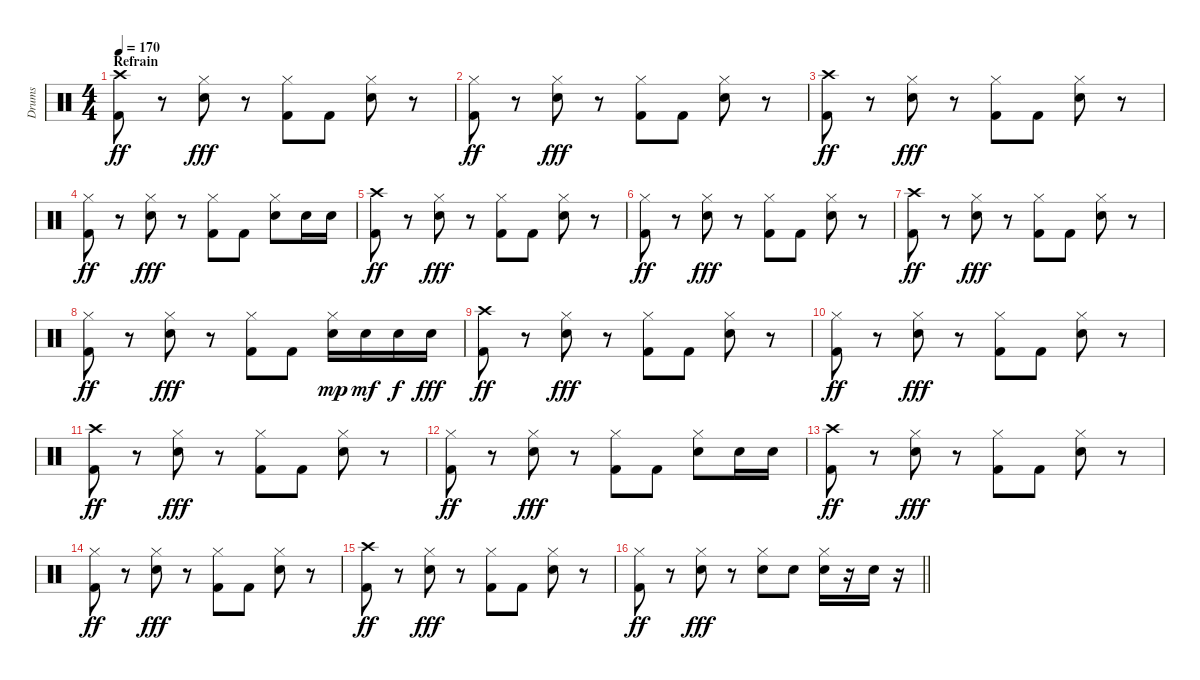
\track ("Drums" "Drums") {instrument percussion}
\staff {score}
\articulation defaults
\ts (4 4)
\section ("" "Refrain")
\tempo 170
\clef neutral
\ks c
("Crash high (hit)" "Kick (hit) 2").8{dy ff} r.8 ("Hi-Hat (closed)" "Snare (hit) 2").8{dy fff} r.8 ("Hi-Hat (closed)" "Kick (hit) 2").8 "Kick (hit) 2".8 ("Hi-Hat (closed)" "Snare (hit) 2").8 r.8 |
("Hi-Hat (closed)" "Kick (hit) 2").8{dy ff} r.8 ("Hi-Hat (closed)" "Snare (hit) 2").8{dy fff} r.8 ("Hi-Hat (closed)" "Kick (hit) 2").8 "Kick (hit) 2".8 ("Hi-Hat (closed)" "Snare (hit) 2").8 r.8 |
("Crash high (hit)" "Kick (hit) 2").8{dy ff} r.8 ("Hi-Hat (closed)" "Snare (hit) 2").8{dy fff} r.8 ("Hi-Hat (closed)" "Kick (hit) 2").8 "Kick (hit) 2".8 ("Hi-Hat (closed)" "Snare (hit) 2").8 r.8 |
("Hi-Hat (closed)" "Kick (hit) 2").8{dy ff} r.8 ("Hi-Hat (closed)" "Snare (hit) 2").8{dy fff} r.8 ("Hi-Hat (closed)" "Kick (hit) 2").8 "Kick (hit) 2".8 ("Hi-Hat (closed)" "Snare (hit) 2").8 "Snare (hit) 2".16 "Snare (hit) 2".16 |
("Crash high (hit)" "Kick (hit) 2").8{dy ff} r.8 ("Hi-Hat (closed)" "Snare (hit) 2").8{dy fff} r.8 ("Hi-Hat (closed)" "Kick (hit) 2").8 "Kick (hit) 2".8 ("Hi-Hat (closed)" "Snare (hit) 2").8 r.8 |
("Hi-Hat (closed)" "Kick (hit) 2").8{dy ff} r.8 ("Hi-Hat (closed)" "Snare (hit) 2").8{dy fff} r.8 ("Hi-Hat (closed)" "Kick (hit) 2").8 "Kick (hit) 2".8 ("Hi-Hat (closed)" "Snare (hit) 2").8 r.8 |
("Crash high (hit)" "Kick (hit) 2").8{dy ff} r.8 ("Hi-Hat (closed)" "Snare (hit) 2").8{dy fff} r.8 ("Hi-Hat (closed)" "Kick (hit) 2").8 "Kick (hit) 2".8 ("Hi-Hat (closed)" "Snare (hit) 2").8 r.8 |
("Hi-Hat (closed)" "Kick (hit) 2").8{dy ff} r.8 ("Hi-Hat (closed)" "Snare (hit) 2").8{dy fff} r.8 ("Hi-Hat (closed)" "Kick (hit) 2").8 "Kick (hit) 2".8 ("Hi-Hat (closed)" "Snare (hit) 2").16{dy mp} "Snare (hit) 2".16{dy mf} "Snare (hit) 2".16{dy f} "Snare (hit) 2".16{dy fff} |
("Crash high (hit)" "Kick (hit) 2").8{dy ff} r.8 ("Hi-Hat (closed)" "Snare (hit) 2").8{dy fff} r.8 ("Hi-Hat (closed)" "Kick (hit) 2").8 "Kick (hit) 2".8 ("Hi-Hat (closed)" "Snare (hit) 2").8 r.8 |
("Hi-Hat (closed)" "Kick (hit) 2").8{dy ff} r.8 ("Hi-Hat (closed)" "Snare (hit) 2").8{dy fff} r.8 ("Hi-Hat (closed)" "Kick (hit) 2").8 "Kick (hit) 2".8 ("Hi-Hat (closed)" "Snare (hit) 2").8 r.8 |
("Crash high (hit)" "Kick (hit) 2").8{dy ff} r.8 ("Hi-Hat (closed)" "Snare (hit) 2").8{dy fff} r.8 ("Hi-Hat (closed)" "Kick (hit) 2").8 "Kick (hit) 2".8 ("Hi-Hat (closed)" "Snare (hit) 2").8 r.8 |
("Hi-Hat (closed)" "Kick (hit) 2").8{dy ff} r.8 ("Hi-Hat (closed)" "Snare (hit) 2").8{dy fff} r.8 ("Hi-Hat (closed)" "Kick (hit) 2").8 "Kick (hit) 2".8 ("Hi-Hat (closed)" "Snare (hit) 2").8 "Snare (hit) 2".16 "Snare (hit) 2".16 |
("Crash high (hit)" "Kick (hit) 2").8{dy ff} r.8 ("Hi-Hat (closed)" "Snare (hit) 2").8{dy fff} r.8 ("Hi-Hat (closed)" "Kick (hit) 2").8 "Kick (hit) 2".8 ("Hi-Hat (closed)" "Snare (hit) 2").8 r.8 |
("Hi-Hat (closed)" "Kick (hit) 2").8{dy ff} r.8 ("Hi-Hat (closed)" "Snare (hit) 2").8{dy fff} r.8 ("Hi-Hat (closed)" "Kick (hit) 2").8 "Kick (hit) 2".8 ("Hi-Hat (closed)" "Snare (hit) 2").8 r.8 |
("Crash high (hit)" "Kick (hit) 2").8{dy ff} r.8 ("Hi-Hat (closed)" "Snare (hit) 2").8{dy fff} r.8 ("Hi-Hat (closed)" "Kick (hit) 2").8 "Kick (hit) 2".8 ("Hi-Hat (closed)" "Snare (hit) 2").8 r.8 |
\barLineRight lightlight
("Hi-Hat (closed)" "Kick (hit) 2").8{dy ff} r.8 ("Hi-Hat (closed)" "Snare (hit) 2").8{dy fff} r.8 ("Hi-Hat (closed)" "Snare (hit) 2").8 "Snare (hit) 2".8 ("Hi-Hat (closed)" "Snare (hit) 2").16 r.16 "Snare (hit) 2".16 r.16
